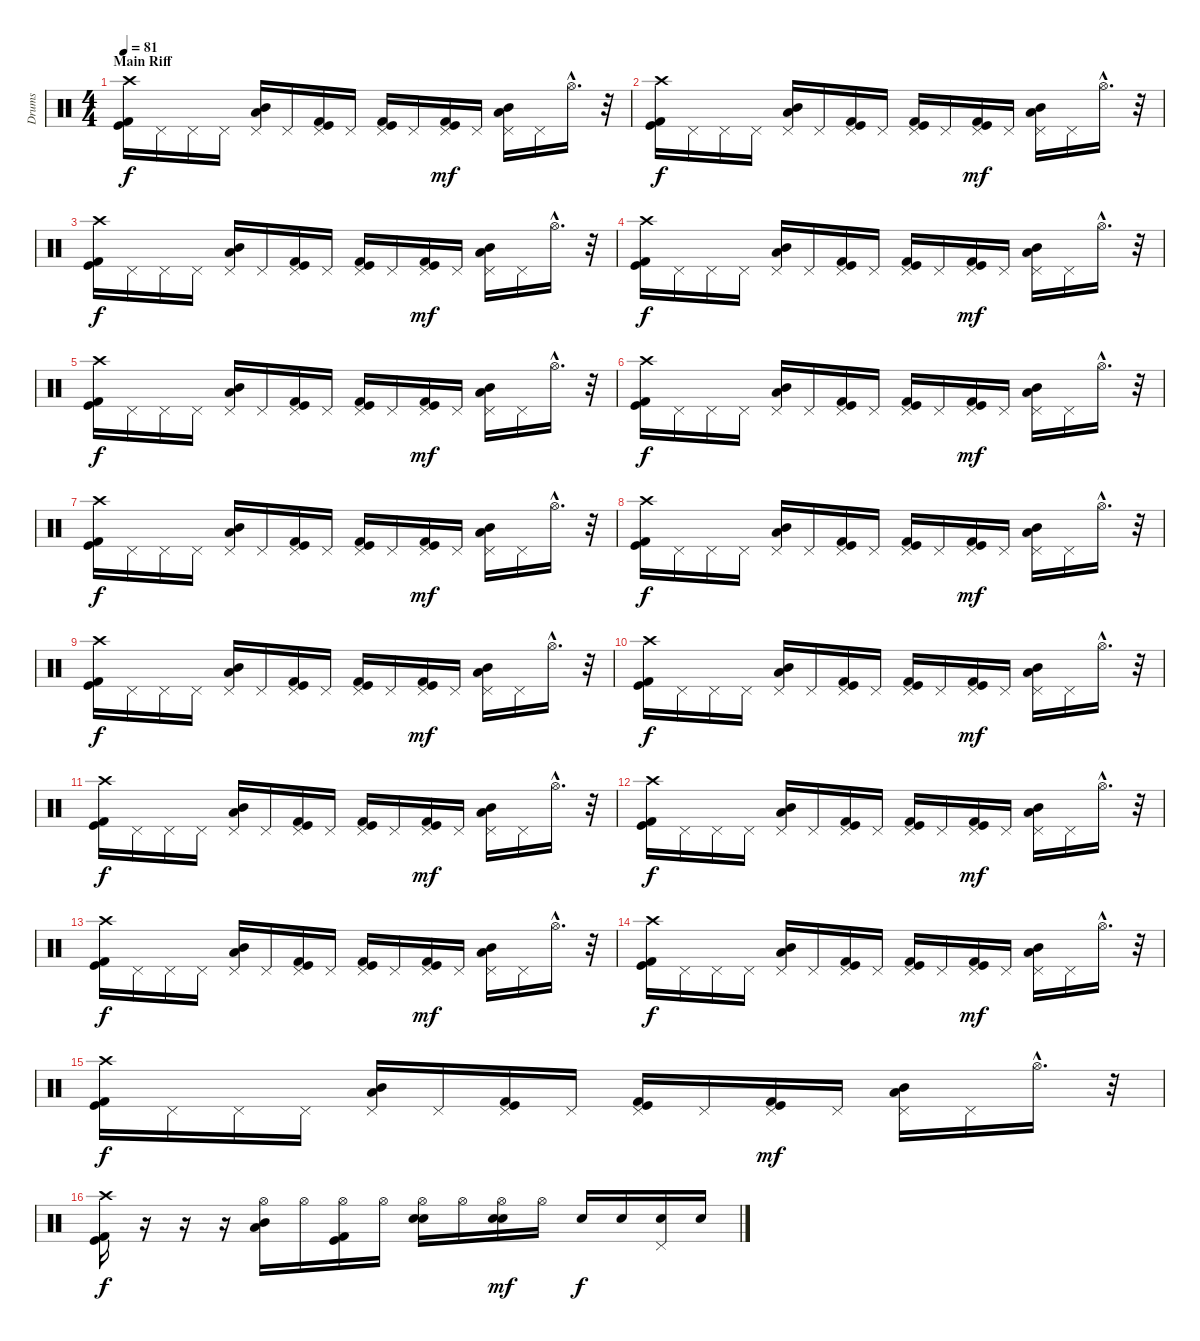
\track ("Drums" "Drums") {instrument percussion}
\staff {score}
\articulation defaults
\ts (4 4)
\section ("" "Main Riff")
\tempo 81
\clef neutral
\ks c
("Crash high (hit)" "Kick (hit)" "Kick (hit) 2").16{dy f} "Pedal Hi-Hat (hit)".16 "Pedal Hi-Hat (hit)".16 "Pedal Hi-Hat (hit)".16 ("Pedal Hi-Hat (hit)" "Mid Tom (hit)" "Low Tom (hit)").16 "Pedal Hi-Hat (hit)".16 ("Pedal Hi-Hat (hit)" "Kick (hit)" "Kick (hit) 2").16 "Pedal Hi-Hat (hit)".16 ("Pedal Hi-Hat (hit)" "Kick (hit)" "Kick (hit) 2").16 "Pedal Hi-Hat (hit)".16 ("Pedal Hi-Hat (hit)" "Kick (hit)" "Kick (hit) 2").16{dy mf} "Pedal Hi-Hat (hit)".16 ("Pedal Hi-Hat (hit)" "Mid Tom (hit)" "Low Tom (hit)").16 "Pedal Hi-Hat (hit)".16 "Hi-Hat (open)"{hac}.16{d} r.32 |
("Crash high (hit)" "Kick (hit)" "Kick (hit) 2").16{dy f} "Pedal Hi-Hat (hit)".16 "Pedal Hi-Hat (hit)".16 "Pedal Hi-Hat (hit)".16 ("Pedal Hi-Hat (hit)" "Mid Tom (hit)" "Low Tom (hit)").16 "Pedal Hi-Hat (hit)".16 ("Pedal Hi-Hat (hit)" "Kick (hit)" "Kick (hit) 2").16 "Pedal Hi-Hat (hit)".16 ("Pedal Hi-Hat (hit)" "Kick (hit)" "Kick (hit) 2").16 "Pedal Hi-Hat (hit)".16 ("Pedal Hi-Hat (hit)" "Kick (hit)" "Kick (hit) 2").16{dy mf} "Pedal Hi-Hat (hit)".16 ("Pedal Hi-Hat (hit)" "Mid Tom (hit)" "Low Tom (hit)").16 "Pedal Hi-Hat (hit)".16 "Hi-Hat (open)"{hac}.16{d} r.32 |
("Crash high (hit)" "Kick (hit)" "Kick (hit) 2").16{dy f} "Pedal Hi-Hat (hit)".16 "Pedal Hi-Hat (hit)".16 "Pedal Hi-Hat (hit)".16 ("Pedal Hi-Hat (hit)" "Mid Tom (hit)" "Low Tom (hit)").16 "Pedal Hi-Hat (hit)".16 ("Pedal Hi-Hat (hit)" "Kick (hit)" "Kick (hit) 2").16 "Pedal Hi-Hat (hit)".16 ("Pedal Hi-Hat (hit)" "Kick (hit)" "Kick (hit) 2").16 "Pedal Hi-Hat (hit)".16 ("Pedal Hi-Hat (hit)" "Kick (hit)" "Kick (hit) 2").16{dy mf} "Pedal Hi-Hat (hit)".16 ("Pedal Hi-Hat (hit)" "Mid Tom (hit)" "Low Tom (hit)").16 "Pedal Hi-Hat (hit)".16 "Hi-Hat (open)"{hac}.16{d} r.32 |
("Crash high (hit)" "Kick (hit)" "Kick (hit) 2").16{dy f} "Pedal Hi-Hat (hit)".16 "Pedal Hi-Hat (hit)".16 "Pedal Hi-Hat (hit)".16 ("Pedal Hi-Hat (hit)" "Mid Tom (hit)" "Low Tom (hit)").16 "Pedal Hi-Hat (hit)".16 ("Pedal Hi-Hat (hit)" "Kick (hit)" "Kick (hit) 2").16 "Pedal Hi-Hat (hit)".16 ("Pedal Hi-Hat (hit)" "Kick (hit)" "Kick (hit) 2").16 "Pedal Hi-Hat (hit)".16 ("Pedal Hi-Hat (hit)" "Kick (hit)" "Kick (hit) 2").16{dy mf} "Pedal Hi-Hat (hit)".16 ("Pedal Hi-Hat (hit)" "Mid Tom (hit)" "Low Tom (hit)").16 "Pedal Hi-Hat (hit)".16 "Hi-Hat (open)"{hac}.16{d} r.32 |
("Crash high (hit)" "Kick (hit)" "Kick (hit) 2").16{dy f} "Pedal Hi-Hat (hit)".16 "Pedal Hi-Hat (hit)".16 "Pedal Hi-Hat (hit)".16 ("Pedal Hi-Hat (hit)" "Mid Tom (hit)" "Low Tom (hit)").16 "Pedal Hi-Hat (hit)".16 ("Pedal Hi-Hat (hit)" "Kick (hit)" "Kick (hit) 2").16 "Pedal Hi-Hat (hit)".16 ("Pedal Hi-Hat (hit)" "Kick (hit)" "Kick (hit) 2").16 "Pedal Hi-Hat (hit)".16 ("Pedal Hi-Hat (hit)" "Kick (hit)" "Kick (hit) 2").16{dy mf} "Pedal Hi-Hat (hit)".16 ("Pedal Hi-Hat (hit)" "Mid Tom (hit)" "Low Tom (hit)").16 "Pedal Hi-Hat (hit)".16 "Hi-Hat (open)"{hac}.16{d} r.32 |
("Crash high (hit)" "Kick (hit)" "Kick (hit) 2").16{dy f} "Pedal Hi-Hat (hit)".16 "Pedal Hi-Hat (hit)".16 "Pedal Hi-Hat (hit)".16 ("Pedal Hi-Hat (hit)" "Mid Tom (hit)" "Low Tom (hit)").16 "Pedal Hi-Hat (hit)".16 ("Pedal Hi-Hat (hit)" "Kick (hit)" "Kick (hit) 2").16 "Pedal Hi-Hat (hit)".16 ("Pedal Hi-Hat (hit)" "Kick (hit)" "Kick (hit) 2").16 "Pedal Hi-Hat (hit)".16 ("Pedal Hi-Hat (hit)" "Kick (hit)" "Kick (hit) 2").16{dy mf} "Pedal Hi-Hat (hit)".16 ("Pedal Hi-Hat (hit)" "Mid Tom (hit)" "Low Tom (hit)").16 "Pedal Hi-Hat (hit)".16 "Hi-Hat (open)"{hac}.16{d} r.32 |
("Crash high (hit)" "Kick (hit)" "Kick (hit) 2").16{dy f} "Pedal Hi-Hat (hit)".16 "Pedal Hi-Hat (hit)".16 "Pedal Hi-Hat (hit)".16 ("Pedal Hi-Hat (hit)" "Mid Tom (hit)" "Low Tom (hit)").16 "Pedal Hi-Hat (hit)".16 ("Pedal Hi-Hat (hit)" "Kick (hit)" "Kick (hit) 2").16 "Pedal Hi-Hat (hit)".16 ("Pedal Hi-Hat (hit)" "Kick (hit)" "Kick (hit) 2").16 "Pedal Hi-Hat (hit)".16 ("Pedal Hi-Hat (hit)" "Kick (hit)" "Kick (hit) 2").16{dy mf} "Pedal Hi-Hat (hit)".16 ("Pedal Hi-Hat (hit)" "Mid Tom (hit)" "Low Tom (hit)").16 "Pedal Hi-Hat (hit)".16 "Hi-Hat (open)"{hac}.16{d} r.32 |
("Crash high (hit)" "Kick (hit)" "Kick (hit) 2").16{dy f} "Pedal Hi-Hat (hit)".16 "Pedal Hi-Hat (hit)".16 "Pedal Hi-Hat (hit)".16 ("Pedal Hi-Hat (hit)" "Mid Tom (hit)" "Low Tom (hit)").16 "Pedal Hi-Hat (hit)".16 ("Pedal Hi-Hat (hit)" "Kick (hit)" "Kick (hit) 2").16 "Pedal Hi-Hat (hit)".16 ("Pedal Hi-Hat (hit)" "Kick (hit)" "Kick (hit) 2").16 "Pedal Hi-Hat (hit)".16 ("Pedal Hi-Hat (hit)" "Kick (hit)" "Kick (hit) 2").16{dy mf} "Pedal Hi-Hat (hit)".16 ("Pedal Hi-Hat (hit)" "Mid Tom (hit)" "Low Tom (hit)").16 "Pedal Hi-Hat (hit)".16 "Hi-Hat (open)"{hac}.16{d} r.32 |
("Crash high (hit)" "Kick (hit)" "Kick (hit) 2").16{dy f} "Pedal Hi-Hat (hit)".16 "Pedal Hi-Hat (hit)".16 "Pedal Hi-Hat (hit)".16 ("Pedal Hi-Hat (hit)" "Mid Tom (hit)" "Low Tom (hit)").16 "Pedal Hi-Hat (hit)".16 ("Pedal Hi-Hat (hit)" "Kick (hit)" "Kick (hit) 2").16 "Pedal Hi-Hat (hit)".16 ("Pedal Hi-Hat (hit)" "Kick (hit)" "Kick (hit) 2").16 "Pedal Hi-Hat (hit)".16 ("Pedal Hi-Hat (hit)" "Kick (hit)" "Kick (hit) 2").16{dy mf} "Pedal Hi-Hat (hit)".16 ("Pedal Hi-Hat (hit)" "Mid Tom (hit)" "Low Tom (hit)").16 "Pedal Hi-Hat (hit)".16 "Hi-Hat (open)"{hac}.16{d} r.32 |
("Crash high (hit)" "Kick (hit)" "Kick (hit) 2").16{dy f} "Pedal Hi-Hat (hit)".16 "Pedal Hi-Hat (hit)".16 "Pedal Hi-Hat (hit)".16 ("Pedal Hi-Hat (hit)" "Mid Tom (hit)" "Low Tom (hit)").16 "Pedal Hi-Hat (hit)".16 ("Pedal Hi-Hat (hit)" "Kick (hit)" "Kick (hit) 2").16 "Pedal Hi-Hat (hit)".16 ("Pedal Hi-Hat (hit)" "Kick (hit)" "Kick (hit) 2").16 "Pedal Hi-Hat (hit)".16 ("Pedal Hi-Hat (hit)" "Kick (hit)" "Kick (hit) 2").16{dy mf} "Pedal Hi-Hat (hit)".16 ("Pedal Hi-Hat (hit)" "Mid Tom (hit)" "Low Tom (hit)").16 "Pedal Hi-Hat (hit)".16 "Hi-Hat (open)"{hac}.16{d} r.32 |
("Crash high (hit)" "Kick (hit)" "Kick (hit) 2").16{dy f} "Pedal Hi-Hat (hit)".16 "Pedal Hi-Hat (hit)".16 "Pedal Hi-Hat (hit)".16 ("Pedal Hi-Hat (hit)" "Mid Tom (hit)" "Low Tom (hit)").16 "Pedal Hi-Hat (hit)".16 ("Pedal Hi-Hat (hit)" "Kick (hit)" "Kick (hit) 2").16 "Pedal Hi-Hat (hit)".16 ("Pedal Hi-Hat (hit)" "Kick (hit)" "Kick (hit) 2").16 "Pedal Hi-Hat (hit)".16 ("Pedal Hi-Hat (hit)" "Kick (hit)" "Kick (hit) 2").16{dy mf} "Pedal Hi-Hat (hit)".16 ("Pedal Hi-Hat (hit)" "Mid Tom (hit)" "Low Tom (hit)").16 "Pedal Hi-Hat (hit)".16 "Hi-Hat (open)"{hac}.16{d} r.32 |
("Crash high (hit)" "Kick (hit)" "Kick (hit) 2").16{dy f} "Pedal Hi-Hat (hit)".16 "Pedal Hi-Hat (hit)".16 "Pedal Hi-Hat (hit)".16 ("Pedal Hi-Hat (hit)" "Mid Tom (hit)" "Low Tom (hit)").16 "Pedal Hi-Hat (hit)".16 ("Pedal Hi-Hat (hit)" "Kick (hit)" "Kick (hit) 2").16 "Pedal Hi-Hat (hit)".16 ("Pedal Hi-Hat (hit)" "Kick (hit)" "Kick (hit) 2").16 "Pedal Hi-Hat (hit)".16 ("Pedal Hi-Hat (hit)" "Kick (hit)" "Kick (hit) 2").16{dy mf} "Pedal Hi-Hat (hit)".16 ("Pedal Hi-Hat (hit)" "Mid Tom (hit)" "Low Tom (hit)").16 "Pedal Hi-Hat (hit)".16 "Hi-Hat (open)"{hac}.16{d} r.32 |
("Crash high (hit)" "Kick (hit)" "Kick (hit) 2").16{dy f} "Pedal Hi-Hat (hit)".16 "Pedal Hi-Hat (hit)".16 "Pedal Hi-Hat (hit)".16 ("Pedal Hi-Hat (hit)" "Mid Tom (hit)" "Low Tom (hit)").16 "Pedal Hi-Hat (hit)".16 ("Pedal Hi-Hat (hit)" "Kick (hit)" "Kick (hit) 2").16 "Pedal Hi-Hat (hit)".16 ("Pedal Hi-Hat (hit)" "Kick (hit)" "Kick (hit) 2").16 "Pedal Hi-Hat (hit)".16 ("Pedal Hi-Hat (hit)" "Kick (hit)" "Kick (hit) 2").16{dy mf} "Pedal Hi-Hat (hit)".16 ("Pedal Hi-Hat (hit)" "Mid Tom (hit)" "Low Tom (hit)").16 "Pedal Hi-Hat (hit)".16 "Hi-Hat (open)"{hac}.16{d} r.32 |
("Crash high (hit)" "Kick (hit)" "Kick (hit) 2").16{dy f} "Pedal Hi-Hat (hit)".16 "Pedal Hi-Hat (hit)".16 "Pedal Hi-Hat (hit)".16 ("Pedal Hi-Hat (hit)" "Mid Tom (hit)" "Low Tom (hit)").16 "Pedal Hi-Hat (hit)".16 ("Pedal Hi-Hat (hit)" "Kick (hit)" "Kick (hit) 2").16 "Pedal Hi-Hat (hit)".16 ("Pedal Hi-Hat (hit)" "Kick (hit)" "Kick (hit) 2").16 "Pedal Hi-Hat (hit)".16 ("Pedal Hi-Hat (hit)" "Kick (hit)" "Kick (hit) 2").16{dy mf} "Pedal Hi-Hat (hit)".16 ("Pedal Hi-Hat (hit)" "Mid Tom (hit)" "Low Tom (hit)").16 "Pedal Hi-Hat (hit)".16 "Hi-Hat (open)"{hac}.16{d} r.32 |
("Crash high (hit)" "Kick (hit)" "Kick (hit) 2").16{dy f} "Pedal Hi-Hat (hit)".16 "Pedal Hi-Hat (hit)".16 "Pedal Hi-Hat (hit)".16 ("Pedal Hi-Hat (hit)" "Mid Tom (hit)" "Low Tom (hit)").16 "Pedal Hi-Hat (hit)".16 ("Pedal Hi-Hat (hit)" "Kick (hit)" "Kick (hit) 2").16 "Pedal Hi-Hat (hit)".16 ("Pedal Hi-Hat (hit)" "Kick (hit)" "Kick (hit) 2").16 "Pedal Hi-Hat (hit)".16 ("Pedal Hi-Hat (hit)" "Kick (hit)" "Kick (hit) 2").16{dy mf} "Pedal Hi-Hat (hit)".16 ("Pedal Hi-Hat (hit)" "Mid Tom (hit)" "Low Tom (hit)").16 "Pedal Hi-Hat (hit)".16 "Hi-Hat (open)"{hac}.16{d} r.32 |
("Crash high (hit)" "Kick (hit)" "Kick (hit) 2").16{dy f} r.16 r.16 r.16 ("Hi-Hat (open)" "Mid Tom (hit)" "Low Tom (hit)").16 "Hi-Hat (open)".16 ("Hi-Hat (open)" "Kick (hit)" "Kick (hit) 2").16 "Hi-Hat (open)".16 ("Hi-Hat (open)" "Electric Snare (hit)" "Snare (hit) 2").16 "Hi-Hat (open)".16 ("Hi-Hat (open)" "Electric Snare (hit)" "Snare (hit) 2").16{dy mf} "Hi-Hat (open)".16 "Electric Snare (hit)".16{dy f} "Electric Snare (hit)".16 ("Pedal Hi-Hat (hit)" "Electric Snare (hit)").16 "Electric Snare (hit)".16
